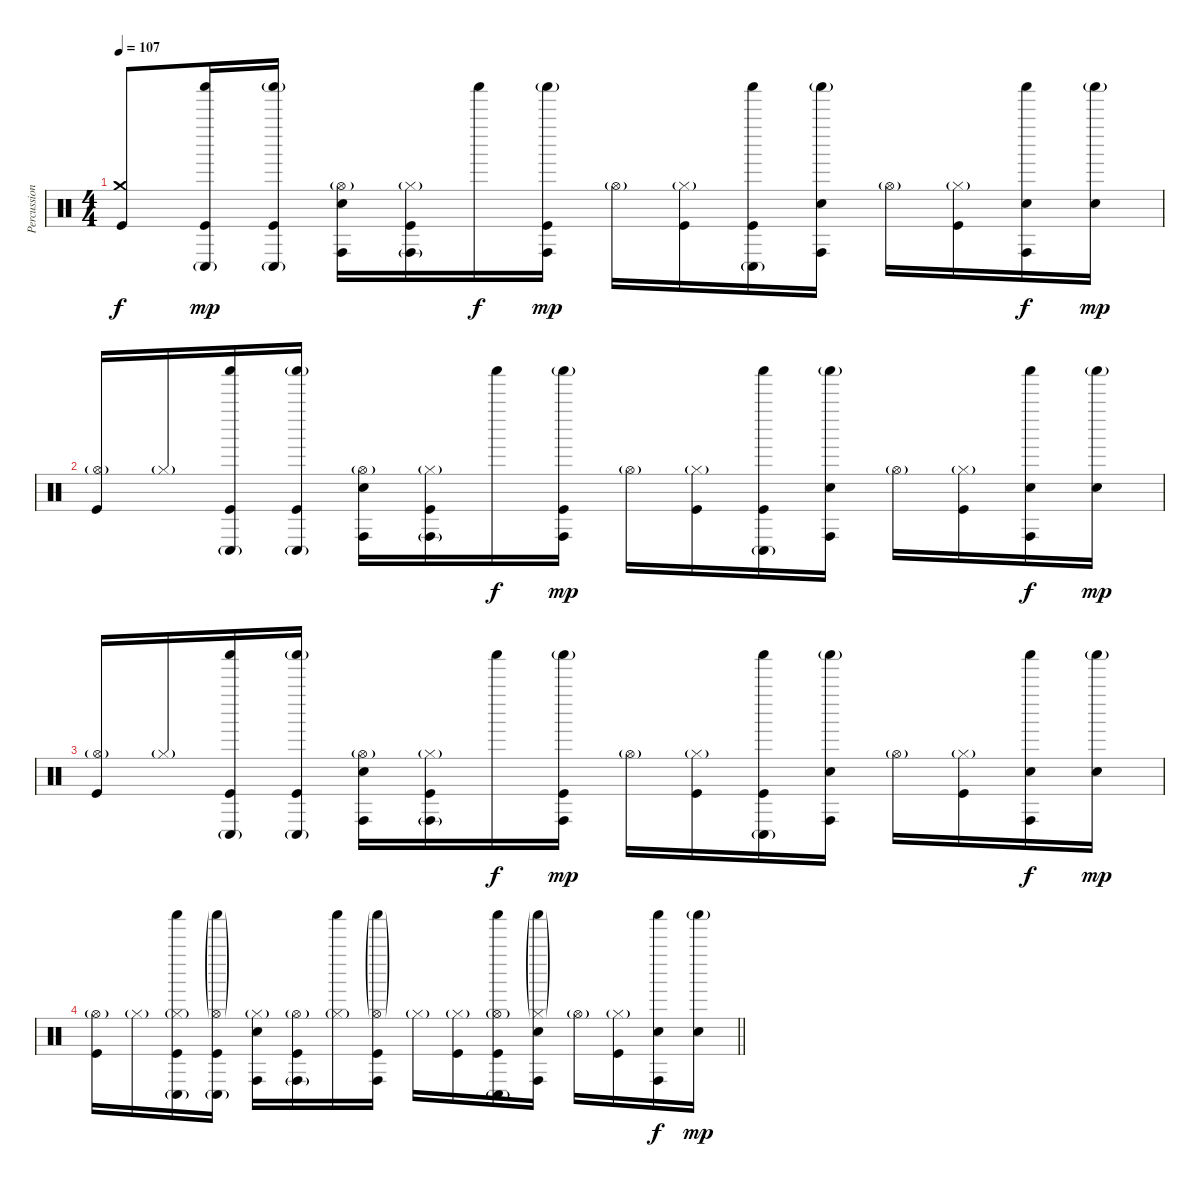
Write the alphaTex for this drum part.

\track ("Percussion" "Percussion") {instrument percussion}
\staff {score}
\articulation defaults
\ts (4 4)
\tempo 107
\clef neutral
\ks c
("Crash medium (hit)" "Kick (hit)").8{dy f} ("Shaker (hit)" "Conga low (hit)"{g} "Kick (hit)").16{dy mp} ("Shaker (hit)"{g} "Conga low (hit)"{g} "Kick (hit)").16 ("Hi-Hat (open)"{g} "Snare (hit) 2" "Conga high (hit)").16 ("Hi-Hat (closed)"{g} "Conga high (hit)"{g} "Kick (hit)").16 "Shaker (hit)".16{dy f} ("Shaker (hit)"{g} "Conga high (hit)" "Kick (hit)").16{dy mp} "Hi-Hat (open)"{g}.16 ("Hi-Hat (closed)"{g} "Kick (hit)").16 ("Shaker (hit)" "Conga low (hit)"{g} "Kick (hit)").16 ("Shaker (hit)"{g} "Snare (hit) 2" "Conga high (hit)").16 "Hi-Hat (open)"{g}.16 ("Hi-Hat (closed)"{g} "Kick (hit)").16 ("Shaker (hit)" "Snare (hit) 2" "Conga high (hit)").16{dy f} ("Shaker (hit)"{g} "Snare (hit) 2").16{dy mp} |
("Hi-Hat (open)"{g} "Kick (hit)").16 "Hi-Hat (closed)"{g}.16 ("Shaker (hit)" "Conga low (hit)"{g} "Kick (hit)").16 ("Shaker (hit)"{g} "Conga low (hit)"{g} "Kick (hit)").16 ("Hi-Hat (open)"{g} "Snare (hit) 2" "Conga high (hit)").16 ("Hi-Hat (closed)"{g} "Conga high (hit)"{g} "Kick (hit)").16 "Shaker (hit)".16{dy f} ("Shaker (hit)"{g} "Conga high (hit)" "Kick (hit)").16{dy mp} "Hi-Hat (open)"{g}.16 ("Hi-Hat (closed)"{g} "Kick (hit)").16 ("Shaker (hit)" "Conga low (hit)"{g} "Kick (hit)").16 ("Shaker (hit)"{g} "Snare (hit) 2" "Conga high (hit)").16 "Hi-Hat (open)"{g}.16 ("Hi-Hat (closed)"{g} "Kick (hit)").16 ("Shaker (hit)" "Snare (hit) 2" "Conga high (hit)").16{dy f} ("Shaker (hit)"{g} "Snare (hit) 2").16{dy mp} |
("Hi-Hat (open)"{g} "Kick (hit)").16 "Hi-Hat (closed)"{g}.16 ("Shaker (hit)" "Conga low (hit)"{g} "Kick (hit)").16 ("Shaker (hit)"{g} "Conga low (hit)"{g} "Kick (hit)").16 ("Hi-Hat (open)"{g} "Snare (hit) 2" "Conga high (hit)").16 ("Hi-Hat (closed)"{g} "Conga high (hit)"{g} "Kick (hit)").16 "Shaker (hit)".16{dy f} ("Shaker (hit)"{g} "Conga high (hit)" "Kick (hit)").16{dy mp} "Hi-Hat (open)"{g}.16 ("Hi-Hat (closed)"{g} "Kick (hit)").16 ("Shaker (hit)" "Conga low (hit)"{g} "Kick (hit)").16 ("Shaker (hit)"{g} "Snare (hit) 2" "Conga high (hit)").16 "Hi-Hat (open)"{g}.16 ("Hi-Hat (closed)"{g} "Kick (hit)").16 ("Shaker (hit)" "Snare (hit) 2" "Conga high (hit)").16{dy f} ("Shaker (hit)"{g} "Snare (hit) 2").16{dy mp} |
\barLineRight lightlight
("Hi-Hat (open)"{g} "Kick (hit)").16 "Hi-Hat (closed)"{g}.16 ("Hi-Hat (closed)"{g} "Shaker (hit)" "Conga low (hit)"{g} "Kick (hit)").16 ("Hi-Hat (open)"{g} "Shaker (hit)"{g} "Conga low (hit)"{g} "Kick (hit)").16 ("Hi-Hat (closed)"{g} "Snare (hit) 2" "Conga high (hit)").16 ("Hi-Hat (open)"{g} "Conga high (hit)"{g} "Kick (hit)").16 ("Hi-Hat (closed)"{g} "Shaker (hit)").16 ("Hi-Hat (open)"{g} "Shaker (hit)"{g} "Conga high (hit)" "Kick (hit)").16 "Hi-Hat (closed)"{g}.16 ("Hi-Hat (closed)"{g} "Kick (hit)").16 ("Hi-Hat (open)"{g} "Shaker (hit)" "Conga low (hit)"{g} "Kick (hit)").16 ("Hi-Hat (closed)"{g} "Shaker (hit)"{g} "Snare (hit) 2" "Conga high (hit)").16 "Hi-Hat (open)"{g}.16 ("Hi-Hat (closed)"{g} "Kick (hit)").16 ("Shaker (hit)" "Snare (hit) 2" "Conga high (hit)").16{dy f} ("Shaker (hit)"{g} "Snare (hit) 2").16{dy mp}
